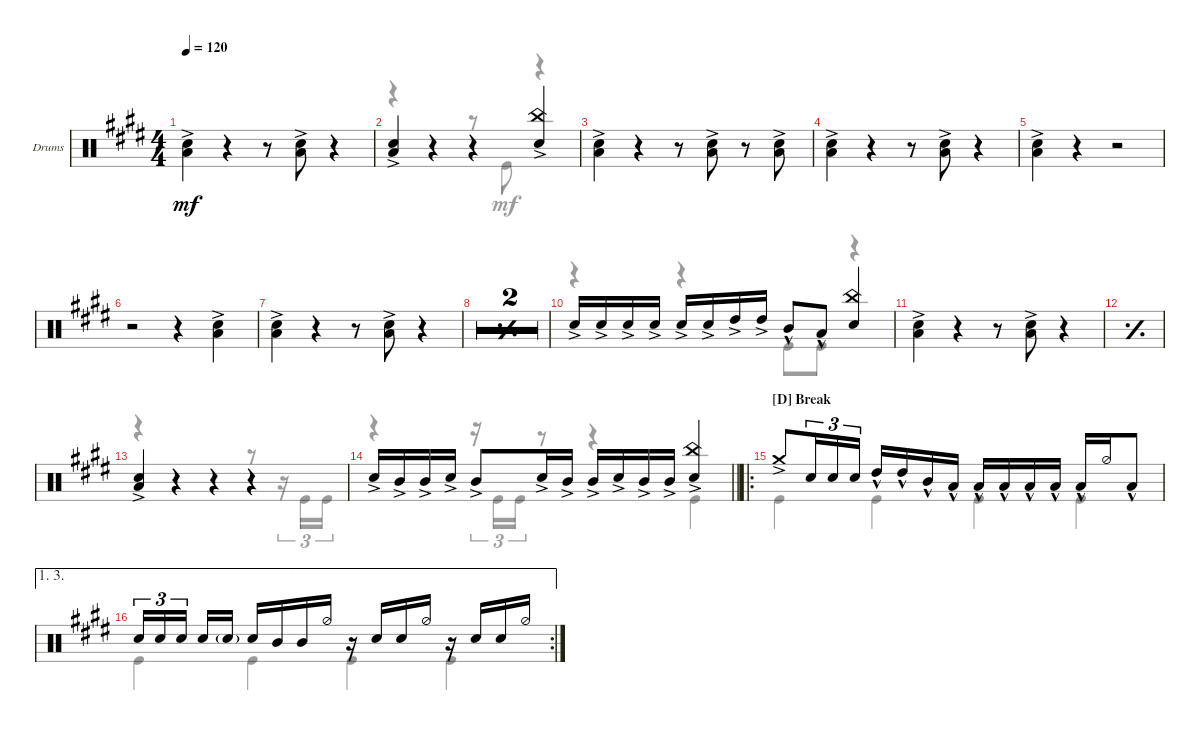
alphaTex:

\defaultSystemsLayout 4
\bracketExtendMode groupsimilarinstruments
\firstSystemTrackNameOrientation horizontal
\otherSystemsTrackNameOrientation horizontal
\track ("Drums" "Drums") {multiBarRest instrument percussion}
\staff {score}
\articulation defaults
\voice
\ts (4 4)
\tempo 120
\clef neutral
\ks e
("Snare (hit) 2"{ac} "Low Tom (hit)"{ac}).4{dy mf} r.4 r.8 ("Low Tom (hit)"{ac} "Snare (hit) 2"{ac}).8 r.4 |
("Snare (hit) 2"{ac} "Low Tom (hit)"{ac}).4 r.4 r.4 ("Snare (hit) 2"{ac} "China (hit)"{ac}).4 |
("Snare (hit) 2"{ac} "Low Tom (hit)"{ac}).4 r.4 r.8 ("Low Tom (hit)"{ac} "Snare (hit) 2"{ac}).8 r.8 ("Low Tom (hit)"{ac} "Snare (hit) 2"{ac}).8 |
("Snare (hit) 2"{ac} "Low Tom (hit)"{ac}).4 r.4 r.8 ("Low Tom (hit)"{ac} "Snare (hit) 2"{ac}).8 r.4 |
("Snare (hit) 2"{ac} "Low Tom (hit)"{ac}).4 r.4 r.2 |
r.2 r.4 ("Snare (hit) 2"{ac} "Low Tom (hit)"{ac}).4 |
("Snare (hit) 2"{ac} "Low Tom (hit)"{ac}).4 r.4 r.8 ("Low Tom (hit)"{ac} "Snare (hit) 2"{ac}).8 r.4 |
\simile simple
|
|
\simile none "Snare (hit) 2"{ac}.16 "Snare (hit) 2"{ac}.16 "Snare (hit) 2"{ac}.16 "Snare (hit) 2"{ac}.16 "Snare (hit) 2"{ac}.16 "Snare (hit) 2"{ac}.16 "High Tom (hit)"{ac}.16 "High Tom (hit)"{ac}.16 "Mid Tom (hit)"{hac}.8 "Low Tom (hit)"{hac}.8
("Snare (hit) 2" "China (hit)").4 |
\scale
0.220898 ("Snare (hit) 2"{ac} "Low Tom (hit)"{ac}).4 r.4 r.8 ("Low Tom (hit)"{ac} "Snare (hit) 2"{ac}).8 r.4 |
\simile simple
\scale
0.104269 |
\simile none
\scale
0.29421 ("Snare (hit) 2"{ac} "Low Tom (hit)"{ac}).4 r.4 r.4 r.4 |
\scale
0.381331
\barLineRight lightlight "Snare (hit) 2"{ac}.16 "Mid Tom (hit)"{ac}.16 "Mid Tom (hit)"{ac}.16 "Snare (hit) 2"{ac}.16 "Mid Tom (hit)"{ac}.8 "Snare (hit) 2"{ac}.16 "Mid Tom (hit)"{ac}.16 "Mid Tom (hit)"{ac}.16 "Snare (hit) 2"{ac}.16 "Mid Tom (hit)"{ac}.16 "Mid Tom (hit)"{ac}.16
("Snare (hit) 2"{ac} "China (hit)").4 |
\ro
\section ("D" "Break")
"Crash medium (hit)"{ac}.8{beam merge} "Snare (hit) 2".16{tu (3 2)} "Snare (hit) 2".16{tu (3 2)} "Snare (hit) 2".16{tu (3 2)} "High Tom (hit)"{hac}.16 "High Tom (hit)"{hac}.16 "Mid Tom (hit)"{hac}.16 "Low Tom (hit)"{hac}.16 "Low Tom (hit)"{hac}.16 "Low Tom (hit)"{hac}.16 "Low Tom (hit)"{hac}.16 "Low Tom (hit)"{hac}.16 "Low Tom (hit)"{hac}.16 "Hi-Hat (half)".16 "Low Tom (hit)"{hac}.8 |
\ae (1 3)
\rc 2 "Snare (hit) 2".16{tu (3 2)} "Snare (hit) 2".16{tu (3 2)} "Snare (hit) 2".16{tu (3 2) beam splitsecondary} "Snare (hit) 2".16 "Snare (hit) 2"{g}.16 "Snare (hit) 2".16 "Mid Tom (hit)".16 "Mid Tom (hit)".16 "Hi-Hat (half)".16
r.16 "Snare (hit) 2".16 "Snare (hit) 2".16 "Hi-Hat (half)".16 r.16 "Snare (hit) 2".16 "Snare (hit) 2".16 "Hi-Hat (half)".16
\voice
\clef neutral
\ottava regular
\simile none
\ks e
|
r.4 r.4 r.8 "Kick (hit)".8 r.4 |
|
|
|
|
|
\simile simple
|
|
\simile none
r.4 r.4 "Kick (hit)".8 "Kick (hit)".8 r.4 |
\scale
0.220898 |
\simile simple
\scale
0.104269 |
\simile none
\scale
0.29421 r.4 r.4 r.4 r.8 r.16{tu (3 2)} "Kick (hit)".16{tu (3 2)} "Kick (hit)".16{tu (3 2)} |
\scale
0.381331
\barLineRight lightlight
r.4 r.16{tu (3 2)} "Kick (hit)".16{tu (3 2)} "Kick (hit)".16{tu (3 2)} r.8 r.4 "Kick (hit)".4 |
"Kick (hit)".4 "Kick (hit)".4 "Kick (hit)".4 "Kick (hit)".4 |
"Kick (hit)".4 "Kick (hit)".4 "Kick (hit)".4 "Kick (hit)".4
